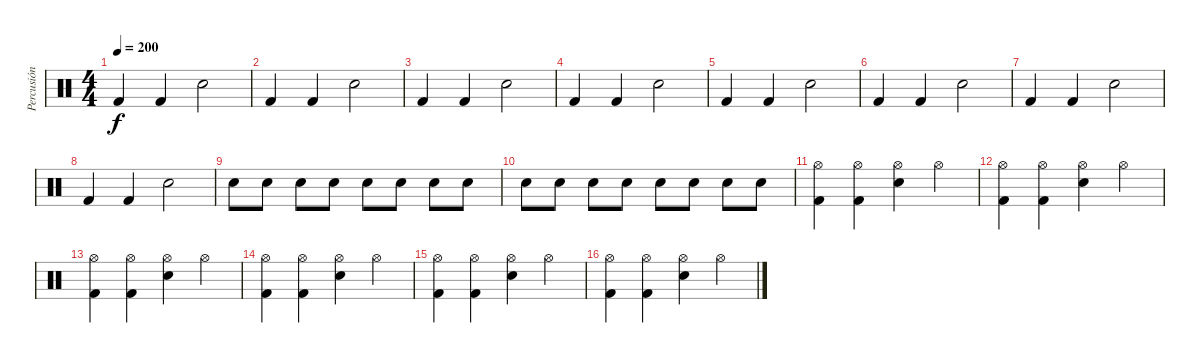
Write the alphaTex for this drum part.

\track ("Percusión" "Percusión") {instrument percussion}
\staff {score}
\articulation defaults
\ts (4 4)
\tempo 200
\clef neutral
\ks c "Kick (hit) 2".4{dy f} "Kick (hit) 2".4 "Electric Snare (hit)".2
|
"Kick (hit) 2".4 "Kick (hit) 2".4 "Electric Snare (hit)".2 |
"Kick (hit) 2".4 "Kick (hit) 2".4 "Electric Snare (hit)".2 |
"Kick (hit) 2".4 "Kick (hit) 2".4 "Electric Snare (hit)".2 |
"Kick (hit) 2".4 "Kick (hit) 2".4 "Electric Snare (hit)".2 |
"Kick (hit) 2".4 "Kick (hit) 2".4 "Electric Snare (hit)".2 |
"Kick (hit) 2".4 "Kick (hit) 2".4 "Electric Snare (hit)".2 |
"Kick (hit) 2".4 "Kick (hit) 2".4 "Electric Snare (hit)".2 |
"Electric Snare (hit)".8 "Electric Snare (hit)".8 "Electric Snare (hit)".8 "Electric Snare (hit)".8 "Electric Snare (hit)".8 "Electric Snare (hit)".8 "Electric Snare (hit)".8 "Electric Snare (hit)".8 |
"Electric Snare (hit)".8 "Electric Snare (hit)".8 "Electric Snare (hit)".8 "Electric Snare (hit)".8 "Electric Snare (hit)".8 "Electric Snare (hit)".8 "Electric Snare (hit)".8 "Electric Snare (hit)".8 |
("Hi-Hat (open)" "Kick (hit) 2").4 ("Hi-Hat (open)" "Kick (hit) 2").4 ("Hi-Hat (open)" "Electric Snare (hit)").4 "Hi-Hat (open)".4 |
("Hi-Hat (open)" "Kick (hit) 2").4 ("Hi-Hat (open)" "Kick (hit) 2").4 ("Hi-Hat (open)" "Electric Snare (hit)").4 "Hi-Hat (open)".4 |
("Hi-Hat (open)" "Kick (hit) 2").4 ("Hi-Hat (open)" "Kick (hit) 2").4 ("Hi-Hat (open)" "Electric Snare (hit)").4 "Hi-Hat (open)".4 |
("Hi-Hat (open)" "Kick (hit) 2").4 ("Hi-Hat (open)" "Kick (hit) 2").4 ("Hi-Hat (open)" "Electric Snare (hit)").4 "Hi-Hat (open)".4 |
("Hi-Hat (open)" "Kick (hit) 2").4 ("Hi-Hat (open)" "Kick (hit) 2").4 ("Hi-Hat (open)" "Electric Snare (hit)").4 "Hi-Hat (open)".4 |
("Hi-Hat (open)" "Kick (hit) 2").4 ("Hi-Hat (open)" "Kick (hit) 2").4 ("Hi-Hat (open)" "Electric Snare (hit)").4 "Hi-Hat (open)".4
